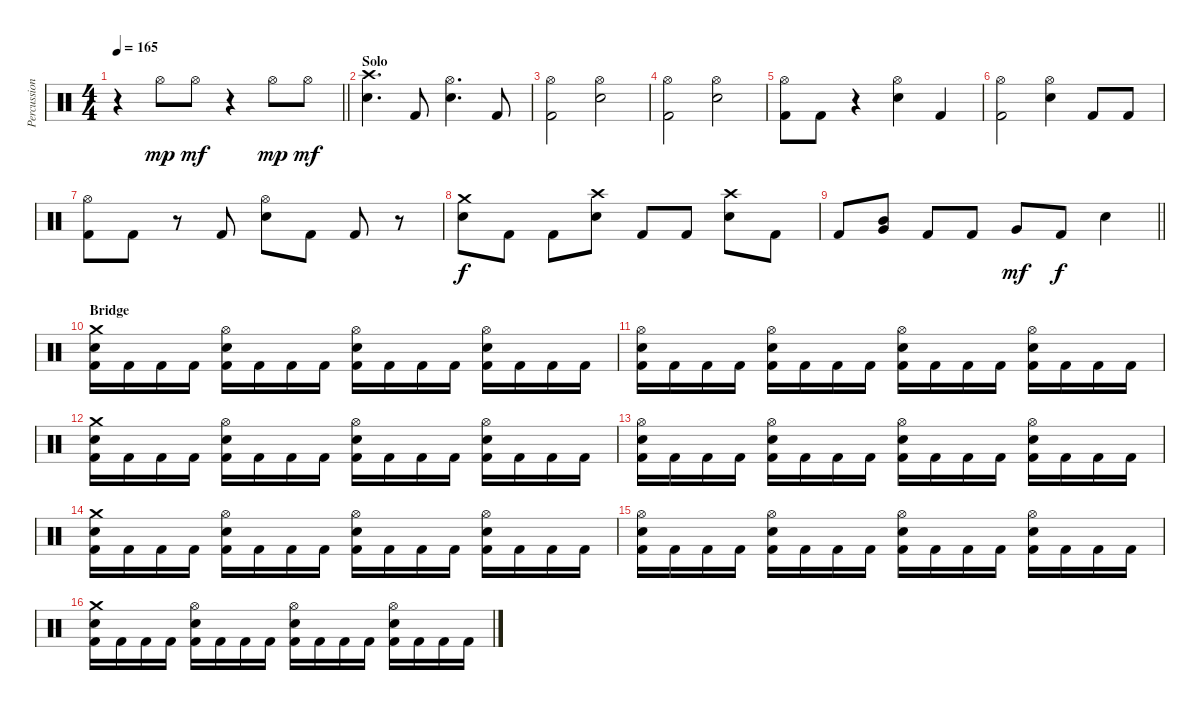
\track ("Percussions" "Percussion") {instrument percussion}
\staff {score}
\articulation defaults
\ts (4 4)
\tempo 165
\clef neutral
\barLineRight lightlight
\ks c
r.4{dy f} "Hi-Hat (open)".8{dy mp} "Hi-Hat (open)".8{dy mf} r.4 "Hi-Hat (open)".8{dy mp} "Hi-Hat (open)".8{dy mf} |
\section ("" "Solo")
("Crash high (hit)" "Electric Snare (hit)").4{d} "Kick (hit) 2".8 ("Hi-Hat (open)" "Electric Snare (hit)").4{d} "Kick (hit) 2".8 |
("Hi-Hat (open)" "Kick (hit) 2").2 ("Hi-Hat (open)" "Electric Snare (hit)").2 |
("Hi-Hat (open)" "Kick (hit) 2").2 ("Hi-Hat (open)" "Electric Snare (hit)").2 |
("Hi-Hat (open)" "Kick (hit) 2").8 "Kick (hit) 2".8 r.4 ("Hi-Hat (open)" "Electric Snare (hit)").4 "Kick (hit) 2".4 |
("Hi-Hat (open)" "Kick (hit) 2").2 ("Hi-Hat (open)" "Electric Snare (hit)").4 "Kick (hit) 2".8 "Kick (hit) 2".8 |
("Hi-Hat (open)" "Kick (hit) 2").8 "Kick (hit) 2".8 r.8 "Kick (hit) 2".8 ("Hi-Hat (open)" "Electric Snare (hit)").8 "Kick (hit) 2".8 "Kick (hit) 2".8 r.8 |
("Crash medium (hit)" "Electric Snare (hit)").8{dy f} "Kick (hit) 2".8 "Kick (hit) 2".8 ("Crash high (hit)" "Electric Snare (hit)").8 "Kick (hit) 2".8 "Kick (hit) 2".8 ("Crash high (hit)" "Electric Snare (hit)").8 "Kick (hit) 2".8 |
\barLineRight lightlight "Kick (hit) 2".8
("Mid Tom (hit)" "Very Low Tom (hit)").8 "Kick (hit) 2".8 "Kick (hit) 2".8 "Very Low Tom (hit)".8{dy mf} "Kick (hit) 2".8{dy f} "Electric Snare (hit)".4 |
\section ("" "Bridge")
("Crash medium (hit)" "Electric Snare (hit)" "Kick (hit) 2").16 "Kick (hit) 2".16 "Kick (hit) 2".16 "Kick (hit) 2".16 ("Hi-Hat (open)" "Electric Snare (hit)" "Kick (hit) 2").16 "Kick (hit) 2".16 "Kick (hit) 2".16 "Kick (hit) 2".16 ("Hi-Hat (open)" "Electric Snare (hit)" "Kick (hit) 2").16 "Kick (hit) 2".16 "Kick (hit) 2".16 "Kick (hit) 2".16 ("Hi-Hat (open)" "Electric Snare (hit)" "Kick (hit) 2").16 "Kick (hit) 2".16 "Kick (hit) 2".16 "Kick (hit) 2".16 |
("Hi-Hat (open)" "Electric Snare (hit)" "Kick (hit) 2").16 "Kick (hit) 2".16 "Kick (hit) 2".16 "Kick (hit) 2".16 ("Hi-Hat (open)" "Electric Snare (hit)" "Kick (hit) 2").16 "Kick (hit) 2".16 "Kick (hit) 2".16 "Kick (hit) 2".16 ("Hi-Hat (open)" "Electric Snare (hit)" "Kick (hit) 2").16 "Kick (hit) 2".16 "Kick (hit) 2".16 "Kick (hit) 2".16 ("Hi-Hat (open)" "Electric Snare (hit)" "Kick (hit) 2").16 "Kick (hit) 2".16 "Kick (hit) 2".16 "Kick (hit) 2".16 |
("Crash medium (hit)" "Electric Snare (hit)" "Kick (hit) 2").16 "Kick (hit) 2".16 "Kick (hit) 2".16 "Kick (hit) 2".16 ("Hi-Hat (open)" "Electric Snare (hit)" "Kick (hit) 2").16 "Kick (hit) 2".16 "Kick (hit) 2".16 "Kick (hit) 2".16 ("Hi-Hat (open)" "Electric Snare (hit)" "Kick (hit) 2").16 "Kick (hit) 2".16 "Kick (hit) 2".16 "Kick (hit) 2".16 ("Hi-Hat (open)" "Electric Snare (hit)" "Kick (hit) 2").16 "Kick (hit) 2".16 "Kick (hit) 2".16 "Kick (hit) 2".16 |
("Hi-Hat (open)" "Electric Snare (hit)" "Kick (hit) 2").16 "Kick (hit) 2".16 "Kick (hit) 2".16 "Kick (hit) 2".16 ("Hi-Hat (open)" "Electric Snare (hit)" "Kick (hit) 2").16 "Kick (hit) 2".16 "Kick (hit) 2".16 "Kick (hit) 2".16 ("Hi-Hat (open)" "Electric Snare (hit)" "Kick (hit) 2").16 "Kick (hit) 2".16 "Kick (hit) 2".16 "Kick (hit) 2".16 ("Hi-Hat (open)" "Electric Snare (hit)" "Kick (hit) 2").16 "Kick (hit) 2".16 "Kick (hit) 2".16 "Kick (hit) 2".16 |
("Crash medium (hit)" "Electric Snare (hit)" "Kick (hit) 2").16 "Kick (hit) 2".16 "Kick (hit) 2".16 "Kick (hit) 2".16 ("Hi-Hat (open)" "Electric Snare (hit)" "Kick (hit) 2").16 "Kick (hit) 2".16 "Kick (hit) 2".16 "Kick (hit) 2".16 ("Hi-Hat (open)" "Electric Snare (hit)" "Kick (hit) 2").16 "Kick (hit) 2".16 "Kick (hit) 2".16 "Kick (hit) 2".16 ("Hi-Hat (open)" "Electric Snare (hit)" "Kick (hit) 2").16 "Kick (hit) 2".16 "Kick (hit) 2".16 "Kick (hit) 2".16 |
("Hi-Hat (open)" "Electric Snare (hit)" "Kick (hit) 2").16 "Kick (hit) 2".16 "Kick (hit) 2".16 "Kick (hit) 2".16 ("Hi-Hat (open)" "Electric Snare (hit)" "Kick (hit) 2").16 "Kick (hit) 2".16 "Kick (hit) 2".16 "Kick (hit) 2".16 ("Hi-Hat (open)" "Electric Snare (hit)" "Kick (hit) 2").16 "Kick (hit) 2".16 "Kick (hit) 2".16 "Kick (hit) 2".16 ("Hi-Hat (open)" "Electric Snare (hit)" "Kick (hit) 2").16 "Kick (hit) 2".16 "Kick (hit) 2".16 "Kick (hit) 2".16 |
("Crash medium (hit)" "Electric Snare (hit)" "Kick (hit) 2").16 "Kick (hit) 2".16 "Kick (hit) 2".16 "Kick (hit) 2".16 ("Hi-Hat (open)" "Electric Snare (hit)" "Kick (hit) 2").16 "Kick (hit) 2".16 "Kick (hit) 2".16 "Kick (hit) 2".16 ("Hi-Hat (open)" "Electric Snare (hit)" "Kick (hit) 2").16 "Kick (hit) 2".16 "Kick (hit) 2".16 "Kick (hit) 2".16 ("Hi-Hat (open)" "Electric Snare (hit)" "Kick (hit) 2").16 "Kick (hit) 2".16 "Kick (hit) 2".16 "Kick (hit) 2".16
